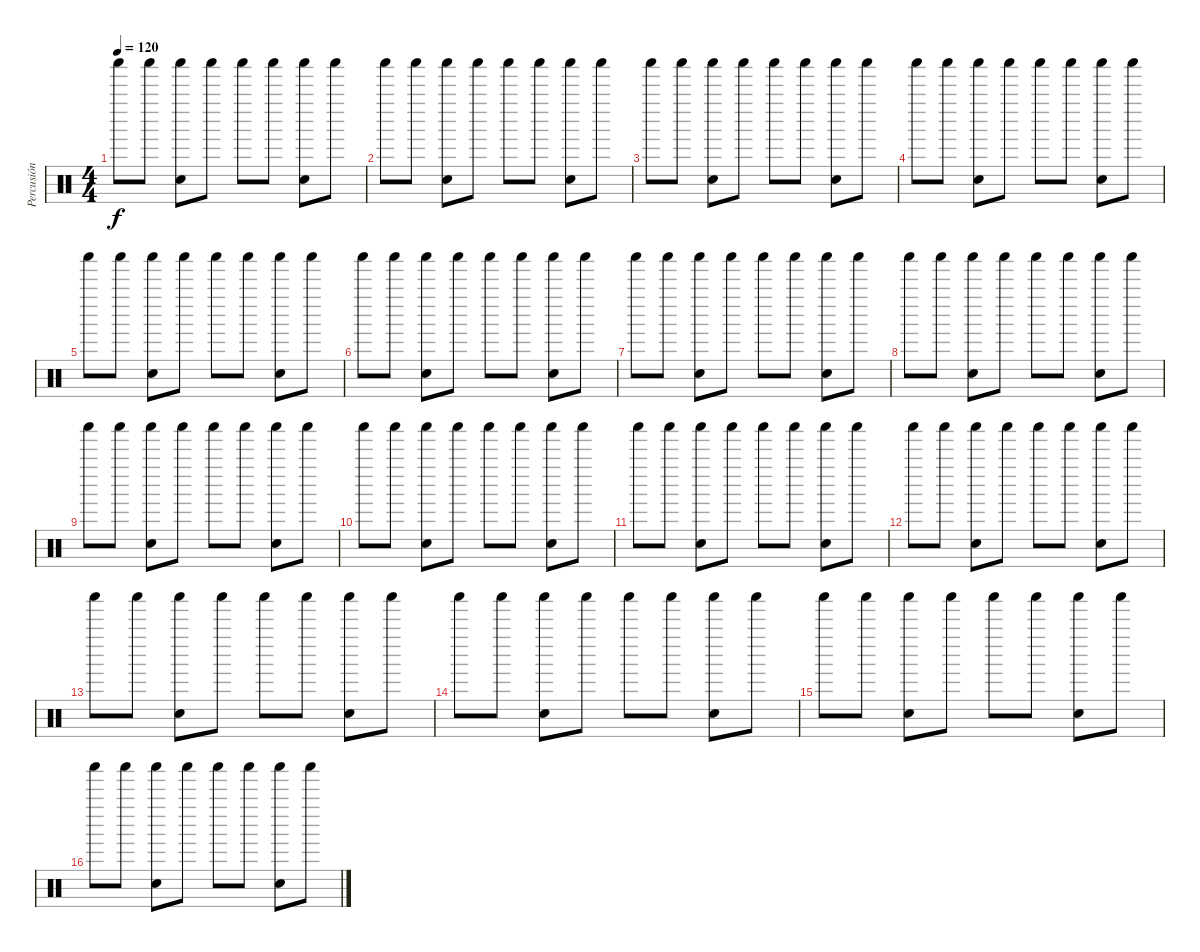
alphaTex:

\track ("Percusión" "Percusión") {instrument percussion}
\staff {score}
\articulation defaults
\ts (4 4)
\tempo 120
\clef neutral
\ks c "Shaker (hit)".8{dy f} "Shaker (hit)".8
("Shaker (hit)" "Hand Clap (hit)").8 "Shaker (hit)".8 "Shaker (hit)".8 "Shaker (hit)".8 ("Shaker (hit)" "Hand Clap (hit)").8 "Shaker (hit)".8 |
"Shaker (hit)".8 "Shaker (hit)".8 ("Shaker (hit)" "Hand Clap (hit)").8 "Shaker (hit)".8 "Shaker (hit)".8 "Shaker (hit)".8 ("Shaker (hit)" "Hand Clap (hit)").8 "Shaker (hit)".8 |
"Shaker (hit)".8 "Shaker (hit)".8 ("Shaker (hit)" "Hand Clap (hit)").8 "Shaker (hit)".8 "Shaker (hit)".8 "Shaker (hit)".8 ("Shaker (hit)" "Hand Clap (hit)").8 "Shaker (hit)".8 |
"Shaker (hit)".8 "Shaker (hit)".8 ("Shaker (hit)" "Hand Clap (hit)").8 "Shaker (hit)".8 "Shaker (hit)".8 "Shaker (hit)".8 ("Shaker (hit)" "Hand Clap (hit)").8 "Shaker (hit)".8 |
"Shaker (hit)".8 "Shaker (hit)".8 ("Shaker (hit)" "Hand Clap (hit)").8 "Shaker (hit)".8 "Shaker (hit)".8 "Shaker (hit)".8 ("Shaker (hit)" "Hand Clap (hit)").8 "Shaker (hit)".8 |
"Shaker (hit)".8 "Shaker (hit)".8 ("Shaker (hit)" "Hand Clap (hit)").8 "Shaker (hit)".8 "Shaker (hit)".8 "Shaker (hit)".8 ("Shaker (hit)" "Hand Clap (hit)").8 "Shaker (hit)".8 |
"Shaker (hit)".8 "Shaker (hit)".8 ("Shaker (hit)" "Hand Clap (hit)").8 "Shaker (hit)".8 "Shaker (hit)".8 "Shaker (hit)".8 ("Shaker (hit)" "Hand Clap (hit)").8 "Shaker (hit)".8 |
"Shaker (hit)".8 "Shaker (hit)".8 ("Shaker (hit)" "Hand Clap (hit)").8 "Shaker (hit)".8 "Shaker (hit)".8 "Shaker (hit)".8 ("Shaker (hit)" "Hand Clap (hit)").8 "Shaker (hit)".8 |
"Shaker (hit)".8 "Shaker (hit)".8 ("Shaker (hit)" "Hand Clap (hit)").8 "Shaker (hit)".8 "Shaker (hit)".8 "Shaker (hit)".8 ("Shaker (hit)" "Hand Clap (hit)").8 "Shaker (hit)".8 |
"Shaker (hit)".8 "Shaker (hit)".8 ("Shaker (hit)" "Hand Clap (hit)").8 "Shaker (hit)".8 "Shaker (hit)".8 "Shaker (hit)".8 ("Shaker (hit)" "Hand Clap (hit)").8 "Shaker (hit)".8 |
"Shaker (hit)".8 "Shaker (hit)".8 ("Shaker (hit)" "Hand Clap (hit)").8 "Shaker (hit)".8 "Shaker (hit)".8 "Shaker (hit)".8 ("Shaker (hit)" "Hand Clap (hit)").8 "Shaker (hit)".8 |
"Shaker (hit)".8 "Shaker (hit)".8 ("Shaker (hit)" "Hand Clap (hit)").8 "Shaker (hit)".8 "Shaker (hit)".8 "Shaker (hit)".8 ("Shaker (hit)" "Hand Clap (hit)").8 "Shaker (hit)".8 |
"Shaker (hit)".8 "Shaker (hit)".8 ("Shaker (hit)" "Hand Clap (hit)").8 "Shaker (hit)".8 "Shaker (hit)".8 "Shaker (hit)".8 ("Shaker (hit)" "Hand Clap (hit)").8 "Shaker (hit)".8 |
"Shaker (hit)".8 "Shaker (hit)".8 ("Shaker (hit)" "Hand Clap (hit)").8 "Shaker (hit)".8 "Shaker (hit)".8 "Shaker (hit)".8 ("Shaker (hit)" "Hand Clap (hit)").8 "Shaker (hit)".8 |
"Shaker (hit)".8 "Shaker (hit)".8 ("Shaker (hit)" "Hand Clap (hit)").8 "Shaker (hit)".8 "Shaker (hit)".8 "Shaker (hit)".8 ("Shaker (hit)" "Hand Clap (hit)").8 "Shaker (hit)".8 |
"Shaker (hit)".8 "Shaker (hit)".8 ("Shaker (hit)" "Hand Clap (hit)").8 "Shaker (hit)".8 "Shaker (hit)".8 "Shaker (hit)".8 ("Shaker (hit)" "Hand Clap (hit)").8 "Shaker (hit)".8
